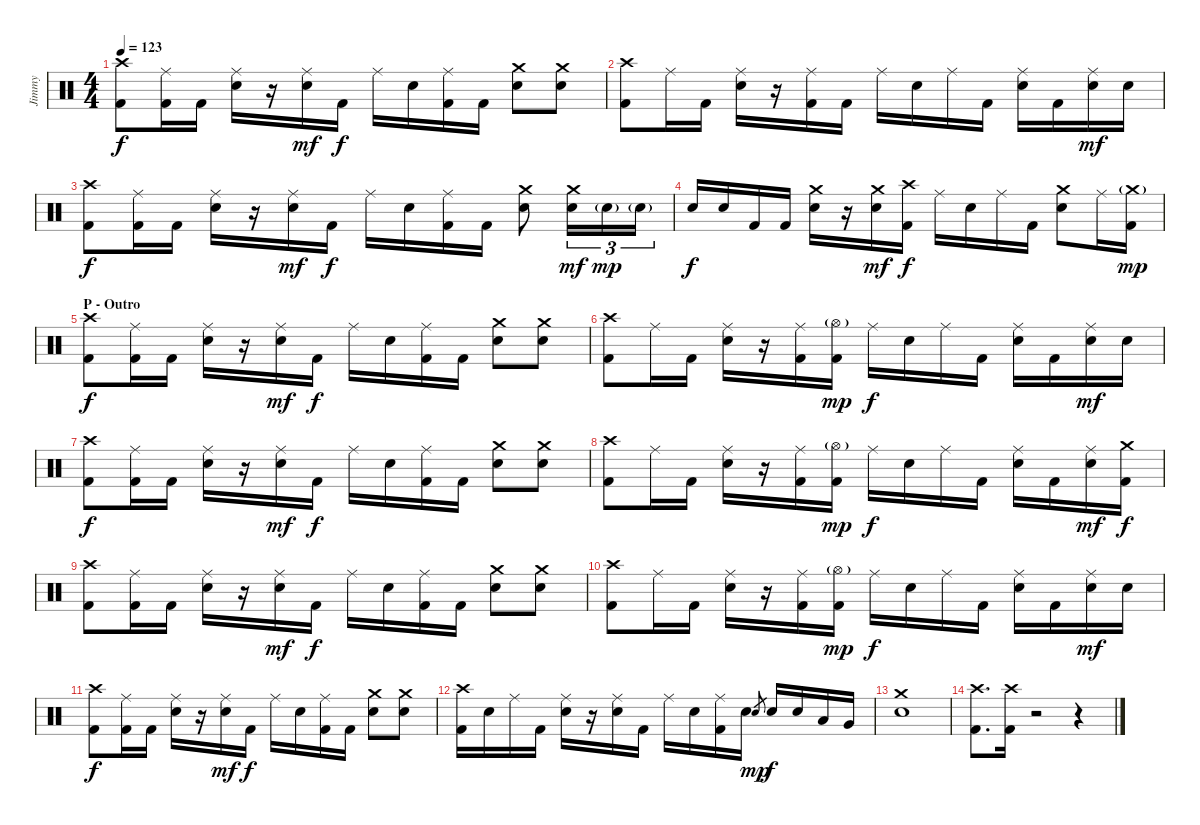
\track ("Jimmy" "Jimmy") {instrument percussion}
\staff {score}
\articulation defaults
\ts (4 4)
\tempo 123
\clef neutral
\ks c
("Crash high (hit)" "Kick (hit) 2").8{dy f} ("Ride (middle)" "Kick (hit) 2").16 "Kick (hit) 2".16 ("Ride (middle)" "Electric Snare (hit)").16 r.16 ("Ride (middle)" "Electric Snare (hit)").16{dy mf} "Kick (hit) 2".16{dy f} "Ride (middle)".16 "Electric Snare (hit)".16 ("Ride (middle)" "Kick (hit) 2").16 "Kick (hit) 2".16 ("Crash medium (hit)" "Electric Snare (hit)").8 ("Crash medium (hit)" "Electric Snare (hit)").8 |
("Crash high (hit)" "Kick (hit) 2").8 "Ride (middle)".16 "Kick (hit) 2".16 ("Ride (middle)" "Electric Snare (hit)").16 r.16 ("Ride (middle)" "Kick (hit) 2").16 "Kick (hit) 2".16 "Ride (middle)".16 "Electric Snare (hit)".16 "Ride (middle)".16 "Kick (hit) 2".16 ("Ride (middle)" "Electric Snare (hit)").16 "Kick (hit) 2".16 ("Ride (middle)" "Electric Snare (hit)").16{dy mf} "Electric Snare (hit)".16 |
("Crash high (hit)" "Kick (hit) 2").8{dy f} ("Ride (middle)" "Kick (hit) 2").16 "Kick (hit) 2".16 ("Ride (middle)" "Electric Snare (hit)").16 r.16 ("Ride (middle)" "Electric Snare (hit)").16{dy mf} "Kick (hit) 2".16{dy f} "Ride (middle)".16 "Electric Snare (hit)".16 ("Ride (middle)" "Kick (hit) 2").16 "Kick (hit) 2".16 ("Crash medium (hit)" "Electric Snare (hit)").8 ("Crash medium (hit)" "Electric Snare (hit)").16{tu (3 2) dy mf} "Electric Snare (hit)"{g}.16{tu (3 2) dy mp} "Electric Snare (hit)"{g}.16{tu (3 2)} |
"Electric Snare (hit)".16{dy f} "Electric Snare (hit)".16 "Kick (hit) 2".16 "Kick (hit) 2".16 ("Crash medium (hit)" "Electric Snare (hit)").16 r.16 ("Crash medium (hit)" "Electric Snare (hit)").16{dy mf} ("Crash high (hit)" "Kick (hit) 2").16{dy f} "Ride (middle)".16 "Electric Snare (hit)".16 "Ride (middle)".16 "Kick (hit) 2".16 ("Crash medium (hit)" "Electric Snare (hit)").8 "Ride (middle)".16 ("Crash medium (hit)"{g} "Kick (hit) 2").16{dy mp} |
\section ("" "P - Outro")
("Crash high (hit)" "Kick (hit) 2").8{dy f} ("Ride (middle)" "Kick (hit) 2").16 "Kick (hit) 2".16 ("Ride (middle)" "Electric Snare (hit)").16 r.16 ("Ride (middle)" "Electric Snare (hit)").16{dy mf} "Kick (hit) 2".16{dy f} "Ride (middle)".16 "Electric Snare (hit)".16 ("Ride (middle)" "Kick (hit) 2").16 "Kick (hit) 2".16 ("Crash medium (hit)" "Electric Snare (hit)").8 ("Crash medium (hit)" "Electric Snare (hit)").8 |
("Crash high (hit)" "Kick (hit) 2").8 "Ride (middle)".16 "Kick (hit) 2".16 ("Ride (middle)" "Electric Snare (hit)").16 r.16 ("Ride (middle)" "Kick (hit) 2").16 ("Hi-Hat (open)"{g} "Kick (hit) 2").16{dy mp} "Ride (middle)".16{dy f} "Electric Snare (hit)".16 "Ride (middle)".16 "Kick (hit) 2".16 ("Ride (middle)" "Electric Snare (hit)").16 "Kick (hit) 2".16 ("Ride (middle)" "Electric Snare (hit)").16{dy mf} "Electric Snare (hit)".16 |
("Crash high (hit)" "Kick (hit) 2").8{dy f} ("Ride (middle)" "Kick (hit) 2").16 "Kick (hit) 2".16 ("Ride (middle)" "Electric Snare (hit)").16 r.16 ("Ride (middle)" "Electric Snare (hit)").16{dy mf} "Kick (hit) 2".16{dy f} "Ride (middle)".16 "Electric Snare (hit)".16 ("Ride (middle)" "Kick (hit) 2").16 "Kick (hit) 2".16 ("Crash medium (hit)" "Electric Snare (hit)").8 ("Crash medium (hit)" "Electric Snare (hit)").8 |
("Crash high (hit)" "Kick (hit) 2").8 "Ride (middle)".16 "Kick (hit) 2".16 ("Ride (middle)" "Electric Snare (hit)").16 r.16 ("Ride (middle)" "Kick (hit) 2").16 ("Hi-Hat (open)"{g} "Kick (hit) 2").16{dy mp} "Ride (middle)".16{dy f} "Electric Snare (hit)".16 "Ride (middle)".16 "Kick (hit) 2".16 ("Ride (middle)" "Electric Snare (hit)").16 "Kick (hit) 2".16 ("Ride (middle)" "Electric Snare (hit)").16{dy mf} ("Crash medium (hit)" "Kick (hit) 2").16{dy f} |
("Crash high (hit)" "Kick (hit) 2").8 ("Ride (middle)" "Kick (hit) 2").16 "Kick (hit) 2".16 ("Ride (middle)" "Electric Snare (hit)").16 r.16 ("Ride (middle)" "Electric Snare (hit)").16{dy mf} "Kick (hit) 2".16{dy f} "Ride (middle)".16 "Electric Snare (hit)".16 ("Ride (middle)" "Kick (hit) 2").16 "Kick (hit) 2".16 ("Crash medium (hit)" "Electric Snare (hit)").8 ("Crash medium (hit)" "Electric Snare (hit)").8 |
("Crash high (hit)" "Kick (hit) 2").8 "Ride (middle)".16 "Kick (hit) 2".16 ("Ride (middle)" "Electric Snare (hit)").16 r.16 ("Ride (middle)" "Kick (hit) 2").16 ("Hi-Hat (open)"{g} "Kick (hit) 2").16{dy mp} "Ride (middle)".16{dy f} "Electric Snare (hit)".16 "Ride (middle)".16 "Kick (hit) 2".16 ("Ride (middle)" "Electric Snare (hit)").16 "Kick (hit) 2".16 ("Ride (middle)" "Electric Snare (hit)").16{dy mf} "Electric Snare (hit)".16 |
("Crash high (hit)" "Kick (hit) 2").8{dy f} ("Ride (middle)" "Kick (hit) 2").16 "Kick (hit) 2".16 ("Ride (middle)" "Electric Snare (hit)").16 r.16 ("Ride (middle)" "Electric Snare (hit)").16{dy mf} "Kick (hit) 2".16{dy f} "Ride (middle)".16 "Electric Snare (hit)".16 ("Ride (middle)" "Kick (hit) 2").16 "Kick (hit) 2".16 ("Crash medium (hit)" "Electric Snare (hit)").8 ("Crash medium (hit)" "Electric Snare (hit)").8 |
("Crash high (hit)" "Kick (hit) 2").16 "Electric Snare (hit)".16 "Ride (middle)".16 "Kick (hit) 2".16 ("Ride (middle)" "Electric Snare (hit)").16 r.16 ("Ride (middle)" "Electric Snare (hit)").16 "Kick (hit) 2".16 "Ride (middle)".16 "Electric Snare (hit)".16 ("Ride (middle)" "Kick (hit) 2").16 "Electric Snare (hit)".16 "Electric Snare (hit)".8{gr dy mp} "Electric Snare (hit)".16{dy f} "Electric Snare (hit)".16 "Low Tom (hit)".16 "Very Low Tom (hit)".16 |
("Crash medium (hit)" "Electric Snare (hit)").1 |
("Crash high (hit)" "Kick (hit) 2").8{d} ("Crash high (hit)" "Kick (hit) 2").16 r.2 r.4
